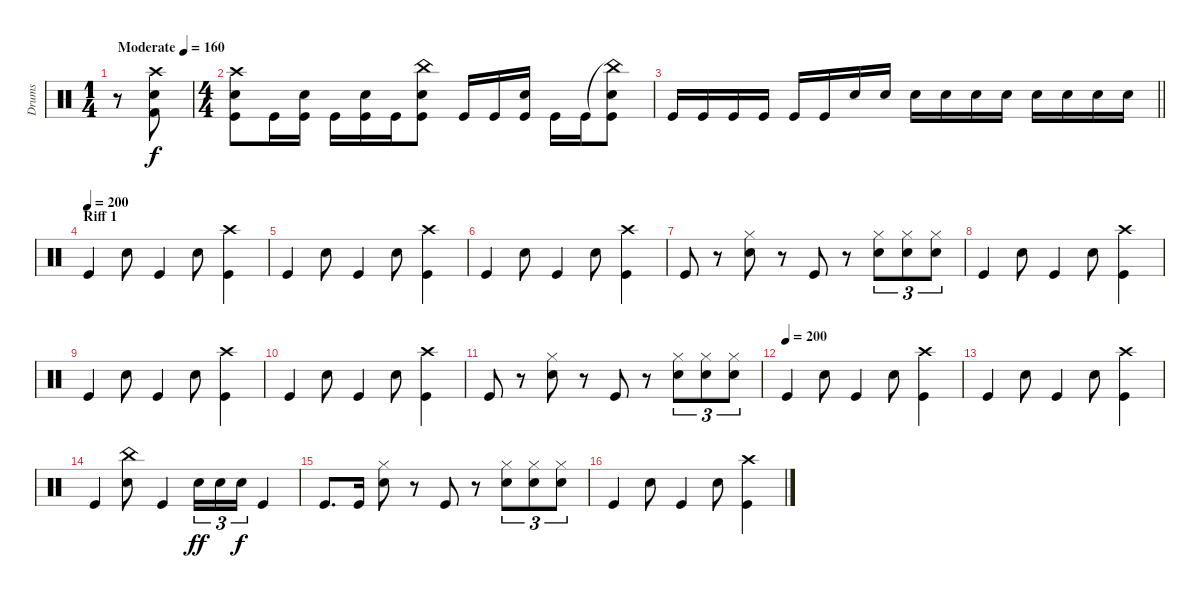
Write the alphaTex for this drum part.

\track ("Drums" "Drums") {instrument percussion}
\staff {score}
\articulation defaults
\ts (1 4)
\tempo (160 "Moderate")
\clef neutral
\ks c
r.8{dy f} ("Crash high (hit)" "Snare (hit) 2" "Kick (hit) 2").8 |
\ts (4 4)
("Crash high (hit)" "Snare (hit) 2" "Kick (hit)").8 "Kick (hit)".16 ("Snare (hit) 2" "Kick (hit)").16 "Kick (hit)".16 ("Snare (hit) 2" "Kick (hit)").16 "Kick (hit)".16 ("China (hit)" "Snare (hit) 2" "Kick (hit)").8 "Kick (hit)".16 "Kick (hit)".16 ("Snare (hit) 2" "Kick (hit)").16 "Kick (hit)".16 "Kick (hit)".16 ("China (hit)"{t} "Snare (hit) 2" "Kick (hit)").8 |
\barLineRight lightlight "Kick (hit)".16 "Kick (hit)".16 "Kick (hit)".16 "Kick (hit)".16 "Kick (hit)".16 "Kick (hit)".16 "Snare (hit) 2".16 "Snare (hit) 2".16 "Snare (hit) 2".16 "Snare (hit) 2".16 "Snare (hit) 2".16 "Snare (hit) 2".16 "Snare (hit) 2".16 "Snare (hit) 2".16 "Snare (hit) 2".16 "Snare (hit) 2".16
|
\section ("" "Riff 1")
\tempo (200)
"Kick (hit)".4 "Snare (hit) 2".8 "Kick (hit)".4 "Snare (hit) 2".8 ("Crash high (hit)" "Kick (hit)").4 |
"Kick (hit)".4 "Snare (hit) 2".8 "Kick (hit)".4 "Snare (hit) 2".8 ("Crash high (hit)" "Kick (hit)").4 |
"Kick (hit)".4 "Snare (hit) 2".8 "Kick (hit)".4 "Snare (hit) 2".8 ("Crash high (hit)" "Kick (hit)").4 |
"Kick (hit)".8 r.8 ("Hi-Hat (closed)" "Snare (hit) 2").8 r.8 "Kick (hit)".8 r.8 ("Hi-Hat (closed)" "Snare (hit) 2").8{tu (3 2)} ("Hi-Hat (closed)" "Snare (hit) 2").8{tu (3 2)} ("Hi-Hat (closed)" "Snare (hit) 2").8{tu (3 2)} |
"Kick (hit)".4 "Snare (hit) 2".8 "Kick (hit)".4 "Snare (hit) 2".8 ("Crash high (hit)" "Kick (hit)").4 |
"Kick (hit)".4 "Snare (hit) 2".8 "Kick (hit)".4 "Snare (hit) 2".8 ("Crash high (hit)" "Kick (hit)").4 |
"Kick (hit)".4 "Snare (hit) 2".8 "Kick (hit)".4 "Snare (hit) 2".8 ("Crash high (hit)" "Kick (hit)").4 |
"Kick (hit)".8 r.8 ("Hi-Hat (closed)" "Snare (hit) 2").8 r.8 "Kick (hit)".8 r.8 ("Hi-Hat (closed)" "Snare (hit) 2").8{tu (3 2)} ("Hi-Hat (closed)" "Snare (hit) 2").8{tu (3 2)} ("Hi-Hat (closed)" "Snare (hit) 2").8{tu (3 2)} |
\tempo (200)
"Kick (hit)".4 "Snare (hit) 2".8 "Kick (hit)".4 "Snare (hit) 2".8 ("Crash high (hit)" "Kick (hit)").4 |
"Kick (hit)".4 "Snare (hit) 2".8 "Kick (hit)".4 "Snare (hit) 2".8 ("Crash high (hit)" "Kick (hit)").4 |
"Kick (hit)".4 ("China (hit)" "Snare (hit) 2").8 "Kick (hit)".4 "Snare (hit) 2".16{tu (3 2) dy ff} "Snare (hit) 2".16{tu (3 2)} "Snare (hit) 2".16{tu (3 2) dy f} "Kick (hit)".4 |
"Kick (hit)".8{d} "Kick (hit)".16 ("Hi-Hat (closed)" "Snare (hit) 2").8 r.8 "Kick (hit)".8 r.8 ("Hi-Hat (closed)" "Snare (hit) 2").8{tu (3 2)} ("Hi-Hat (closed)" "Snare (hit) 2").8{tu (3 2)} ("Hi-Hat (closed)" "Snare (hit) 2").8{tu (3 2)} |
"Kick (hit)".4 "Snare (hit) 2".8 "Kick (hit)".4 "Snare (hit) 2".8 ("Crash high (hit)" "Kick (hit)").4
